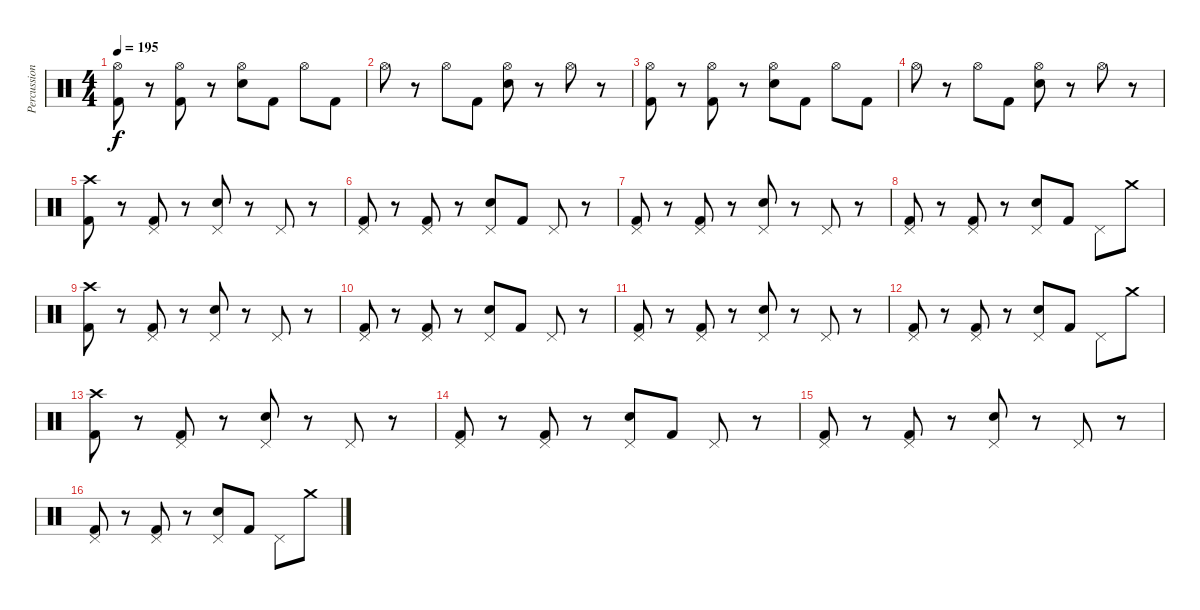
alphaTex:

\track ("Percussion" "Percussion") {instrument percussion}
\staff {score}
\articulation defaults
\ts (4 4)
\tempo 195
\clef neutral
\ks c
("Hi-Hat (open)" "Kick (hit) 2").8{dy f} r.8 ("Hi-Hat (open)" "Kick (hit) 2").8 r.8 ("Hi-Hat (open)" "Electric Snare (hit)").8 "Kick (hit) 2".8 "Hi-Hat (open)".8 "Kick (hit) 2".8 |
"Hi-Hat (open)".8 r.8 "Hi-Hat (open)".8 "Kick (hit) 2".8 ("Hi-Hat (open)" "Electric Snare (hit)").8 r.8 "Hi-Hat (open)".8 r.8 |
("Hi-Hat (open)" "Kick (hit) 2").8 r.8 ("Hi-Hat (open)" "Kick (hit) 2").8 r.8 ("Hi-Hat (open)" "Electric Snare (hit)").8 "Kick (hit) 2".8 "Hi-Hat (open)".8 "Kick (hit) 2".8 |
"Hi-Hat (open)".8 r.8 "Hi-Hat (open)".8 "Kick (hit) 2".8 ("Hi-Hat (open)" "Electric Snare (hit)").8 r.8 "Hi-Hat (open)".8 r.8 |
("Crash high (hit)" "Kick (hit) 2").8 r.8 ("Pedal Hi-Hat (hit)" "Kick (hit) 2").8 r.8 ("Pedal Hi-Hat (hit)" "Electric Snare (hit)").8 r.8 "Pedal Hi-Hat (hit)".8 r.8 |
("Pedal Hi-Hat (hit)" "Kick (hit) 2").8 r.8 ("Pedal Hi-Hat (hit)" "Kick (hit) 2").8 r.8 ("Pedal Hi-Hat (hit)" "Electric Snare (hit)").8 "Kick (hit) 2".8 "Pedal Hi-Hat (hit)".8 r.8 |
("Pedal Hi-Hat (hit)" "Kick (hit) 2").8 r.8 ("Pedal Hi-Hat (hit)" "Kick (hit) 2").8 r.8 ("Pedal Hi-Hat (hit)" "Electric Snare (hit)").8 r.8 "Pedal Hi-Hat (hit)".8 r.8 |
("Pedal Hi-Hat (hit)" "Kick (hit) 2").8 r.8 ("Pedal Hi-Hat (hit)" "Kick (hit) 2").8 r.8 ("Pedal Hi-Hat (hit)" "Electric Snare (hit)").8 "Kick (hit) 2".8 "Pedal Hi-Hat (hit)".8 "Crash medium (hit)".8 |
("Crash high (hit)" "Kick (hit) 2").8 r.8 ("Pedal Hi-Hat (hit)" "Kick (hit) 2").8 r.8 ("Pedal Hi-Hat (hit)" "Electric Snare (hit)").8 r.8 "Pedal Hi-Hat (hit)".8 r.8 |
("Pedal Hi-Hat (hit)" "Kick (hit) 2").8 r.8 ("Pedal Hi-Hat (hit)" "Kick (hit) 2").8 r.8 ("Pedal Hi-Hat (hit)" "Electric Snare (hit)").8 "Kick (hit) 2".8 "Pedal Hi-Hat (hit)".8 r.8 |
("Pedal Hi-Hat (hit)" "Kick (hit) 2").8 r.8 ("Pedal Hi-Hat (hit)" "Kick (hit) 2").8 r.8 ("Pedal Hi-Hat (hit)" "Electric Snare (hit)").8 r.8 "Pedal Hi-Hat (hit)".8 r.8 |
("Pedal Hi-Hat (hit)" "Kick (hit) 2").8 r.8 ("Pedal Hi-Hat (hit)" "Kick (hit) 2").8 r.8 ("Pedal Hi-Hat (hit)" "Electric Snare (hit)").8 "Kick (hit) 2".8 "Pedal Hi-Hat (hit)".8 "Crash medium (hit)".8 |
("Crash high (hit)" "Kick (hit) 2").8 r.8 ("Pedal Hi-Hat (hit)" "Kick (hit) 2").8 r.8 ("Pedal Hi-Hat (hit)" "Electric Snare (hit)").8 r.8 "Pedal Hi-Hat (hit)".8 r.8 |
("Pedal Hi-Hat (hit)" "Kick (hit) 2").8 r.8 ("Pedal Hi-Hat (hit)" "Kick (hit) 2").8 r.8 ("Pedal Hi-Hat (hit)" "Electric Snare (hit)").8 "Kick (hit) 2".8 "Pedal Hi-Hat (hit)".8 r.8 |
("Pedal Hi-Hat (hit)" "Kick (hit) 2").8 r.8 ("Pedal Hi-Hat (hit)" "Kick (hit) 2").8 r.8 ("Pedal Hi-Hat (hit)" "Electric Snare (hit)").8 r.8 "Pedal Hi-Hat (hit)".8 r.8 |
("Pedal Hi-Hat (hit)" "Kick (hit) 2").8 r.8 ("Pedal Hi-Hat (hit)" "Kick (hit) 2").8 r.8 ("Pedal Hi-Hat (hit)" "Electric Snare (hit)").8 "Kick (hit) 2".8 "Pedal Hi-Hat (hit)".8 "Crash medium (hit)".8
